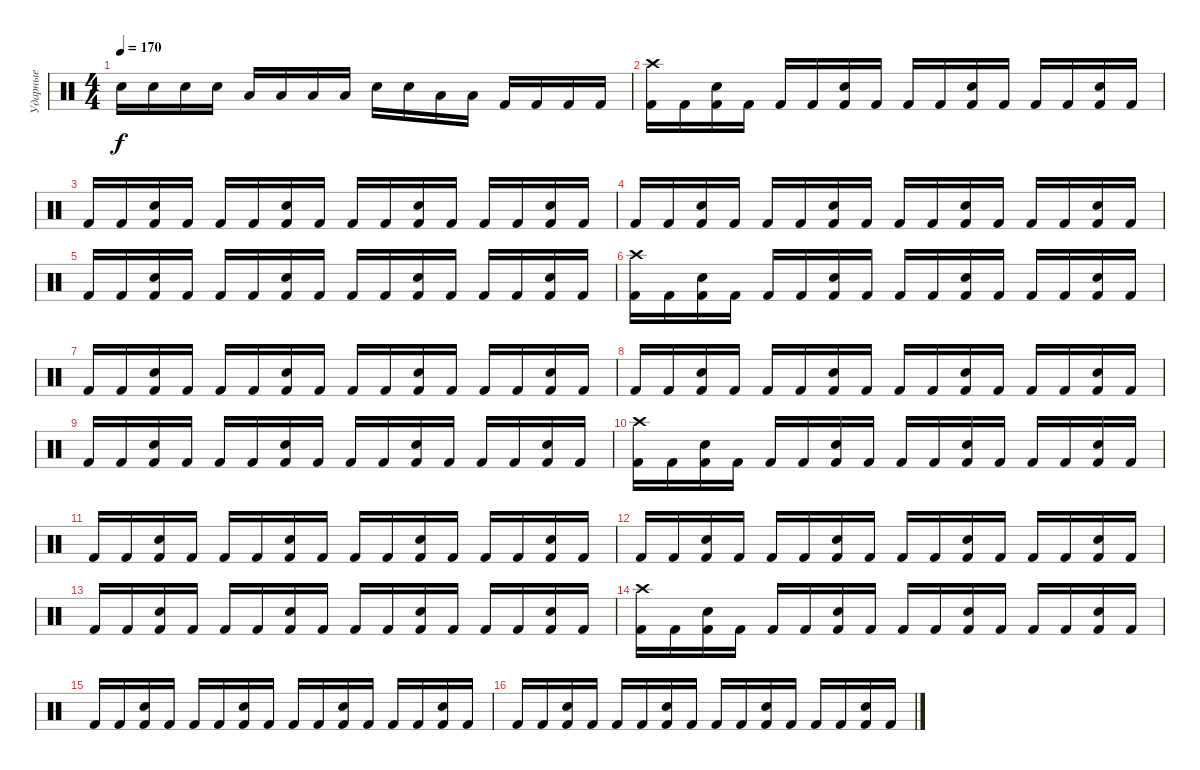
\track ("Ударные" "Ударные") {instrument percussion}
\staff {score}
\articulation defaults
\ts (4 4)
\tempo 170
\clef neutral
\ks c "Electric Snare (hit)".16{dy f} "Electric Snare (hit)".16 "Electric Snare (hit)".16 "Electric Snare (hit)".16 "Low Tom (hit)".16 "Low Tom (hit)".16 "Low Tom (hit)".16 "Low Tom (hit)".16 "Electric Snare (hit)".16 "Electric Snare (hit)".16 "Low Tom (hit)".16 "Low Tom (hit)".16 "Kick (hit) 2".16 "Kick (hit) 2".16 "Kick (hit) 2".16 "Kick (hit) 2".16
|
("Kick (hit) 2" "Crash high (hit)").16 "Kick (hit) 2".16 ("Kick (hit) 2" "Electric Snare (hit)").16 "Kick (hit) 2".16 "Kick (hit) 2".16 "Kick (hit) 2".16 ("Kick (hit) 2" "Electric Snare (hit)").16 "Kick (hit) 2".16 "Kick (hit) 2".16 "Kick (hit) 2".16 ("Kick (hit) 2" "Electric Snare (hit)").16 "Kick (hit) 2".16 "Kick (hit) 2".16 "Kick (hit) 2".16 ("Kick (hit) 2" "Electric Snare (hit)").16 "Kick (hit) 2".16 |
"Kick (hit) 2".16 "Kick (hit) 2".16 ("Kick (hit) 2" "Electric Snare (hit)").16 "Kick (hit) 2".16 "Kick (hit) 2".16 "Kick (hit) 2".16 ("Kick (hit) 2" "Electric Snare (hit)").16 "Kick (hit) 2".16 "Kick (hit) 2".16 "Kick (hit) 2".16 ("Kick (hit) 2" "Electric Snare (hit)").16 "Kick (hit) 2".16 "Kick (hit) 2".16 "Kick (hit) 2".16 ("Kick (hit) 2" "Electric Snare (hit)").16 "Kick (hit) 2".16 |
"Kick (hit) 2".16 "Kick (hit) 2".16 ("Kick (hit) 2" "Electric Snare (hit)").16 "Kick (hit) 2".16 "Kick (hit) 2".16 "Kick (hit) 2".16 ("Kick (hit) 2" "Electric Snare (hit)").16 "Kick (hit) 2".16 "Kick (hit) 2".16 "Kick (hit) 2".16 ("Kick (hit) 2" "Electric Snare (hit)").16 "Kick (hit) 2".16 "Kick (hit) 2".16 "Kick (hit) 2".16 ("Kick (hit) 2" "Electric Snare (hit)").16 "Kick (hit) 2".16 |
"Kick (hit) 2".16 "Kick (hit) 2".16 ("Kick (hit) 2" "Electric Snare (hit)").16 "Kick (hit) 2".16 "Kick (hit) 2".16 "Kick (hit) 2".16 ("Kick (hit) 2" "Electric Snare (hit)").16 "Kick (hit) 2".16 "Kick (hit) 2".16 "Kick (hit) 2".16 ("Kick (hit) 2" "Electric Snare (hit)").16 "Kick (hit) 2".16 "Kick (hit) 2".16 "Kick (hit) 2".16 ("Kick (hit) 2" "Electric Snare (hit)").16 "Kick (hit) 2".16 |
("Kick (hit) 2" "Crash high (hit)").16 "Kick (hit) 2".16 ("Kick (hit) 2" "Electric Snare (hit)").16 "Kick (hit) 2".16 "Kick (hit) 2".16 "Kick (hit) 2".16 ("Kick (hit) 2" "Electric Snare (hit)").16 "Kick (hit) 2".16 "Kick (hit) 2".16 "Kick (hit) 2".16 ("Kick (hit) 2" "Electric Snare (hit)").16 "Kick (hit) 2".16 "Kick (hit) 2".16 "Kick (hit) 2".16 ("Kick (hit) 2" "Electric Snare (hit)").16 "Kick (hit) 2".16 |
"Kick (hit) 2".16 "Kick (hit) 2".16 ("Kick (hit) 2" "Electric Snare (hit)").16 "Kick (hit) 2".16 "Kick (hit) 2".16 "Kick (hit) 2".16 ("Kick (hit) 2" "Electric Snare (hit)").16 "Kick (hit) 2".16 "Kick (hit) 2".16 "Kick (hit) 2".16 ("Kick (hit) 2" "Electric Snare (hit)").16 "Kick (hit) 2".16 "Kick (hit) 2".16 "Kick (hit) 2".16 ("Kick (hit) 2" "Electric Snare (hit)").16 "Kick (hit) 2".16 |
"Kick (hit) 2".16 "Kick (hit) 2".16 ("Kick (hit) 2" "Electric Snare (hit)").16 "Kick (hit) 2".16 "Kick (hit) 2".16 "Kick (hit) 2".16 ("Kick (hit) 2" "Electric Snare (hit)").16 "Kick (hit) 2".16 "Kick (hit) 2".16 "Kick (hit) 2".16 ("Kick (hit) 2" "Electric Snare (hit)").16 "Kick (hit) 2".16 "Kick (hit) 2".16 "Kick (hit) 2".16 ("Kick (hit) 2" "Electric Snare (hit)").16 "Kick (hit) 2".16 |
"Kick (hit) 2".16 "Kick (hit) 2".16 ("Kick (hit) 2" "Electric Snare (hit)").16 "Kick (hit) 2".16 "Kick (hit) 2".16 "Kick (hit) 2".16 ("Kick (hit) 2" "Electric Snare (hit)").16 "Kick (hit) 2".16 "Kick (hit) 2".16 "Kick (hit) 2".16 ("Kick (hit) 2" "Electric Snare (hit)").16 "Kick (hit) 2".16 "Kick (hit) 2".16 "Kick (hit) 2".16 ("Kick (hit) 2" "Electric Snare (hit)").16 "Kick (hit) 2".16 |
("Kick (hit) 2" "Crash high (hit)").16 "Kick (hit) 2".16 ("Kick (hit) 2" "Electric Snare (hit)").16 "Kick (hit) 2".16 "Kick (hit) 2".16 "Kick (hit) 2".16 ("Kick (hit) 2" "Electric Snare (hit)").16 "Kick (hit) 2".16 "Kick (hit) 2".16 "Kick (hit) 2".16 ("Kick (hit) 2" "Electric Snare (hit)").16 "Kick (hit) 2".16 "Kick (hit) 2".16 "Kick (hit) 2".16 ("Kick (hit) 2" "Electric Snare (hit)").16 "Kick (hit) 2".16 |
"Kick (hit) 2".16 "Kick (hit) 2".16 ("Kick (hit) 2" "Electric Snare (hit)").16 "Kick (hit) 2".16 "Kick (hit) 2".16 "Kick (hit) 2".16 ("Kick (hit) 2" "Electric Snare (hit)").16 "Kick (hit) 2".16 "Kick (hit) 2".16 "Kick (hit) 2".16 ("Kick (hit) 2" "Electric Snare (hit)").16 "Kick (hit) 2".16 "Kick (hit) 2".16 "Kick (hit) 2".16 ("Kick (hit) 2" "Electric Snare (hit)").16 "Kick (hit) 2".16 |
"Kick (hit) 2".16 "Kick (hit) 2".16 ("Kick (hit) 2" "Electric Snare (hit)").16 "Kick (hit) 2".16 "Kick (hit) 2".16 "Kick (hit) 2".16 ("Kick (hit) 2" "Electric Snare (hit)").16 "Kick (hit) 2".16 "Kick (hit) 2".16 "Kick (hit) 2".16 ("Kick (hit) 2" "Electric Snare (hit)").16 "Kick (hit) 2".16 "Kick (hit) 2".16 "Kick (hit) 2".16 ("Kick (hit) 2" "Electric Snare (hit)").16 "Kick (hit) 2".16 |
"Kick (hit) 2".16 "Kick (hit) 2".16 ("Kick (hit) 2" "Electric Snare (hit)").16 "Kick (hit) 2".16 "Kick (hit) 2".16 "Kick (hit) 2".16 ("Kick (hit) 2" "Electric Snare (hit)").16 "Kick (hit) 2".16 "Kick (hit) 2".16 "Kick (hit) 2".16 ("Kick (hit) 2" "Electric Snare (hit)").16 "Kick (hit) 2".16 "Kick (hit) 2".16 "Kick (hit) 2".16 ("Kick (hit) 2" "Electric Snare (hit)").16 "Kick (hit) 2".16 |
("Kick (hit) 2" "Crash high (hit)").16 "Kick (hit) 2".16 ("Kick (hit) 2" "Electric Snare (hit)").16 "Kick (hit) 2".16 "Kick (hit) 2".16 "Kick (hit) 2".16 ("Kick (hit) 2" "Electric Snare (hit)").16 "Kick (hit) 2".16 "Kick (hit) 2".16 "Kick (hit) 2".16 ("Kick (hit) 2" "Electric Snare (hit)").16 "Kick (hit) 2".16 "Kick (hit) 2".16 "Kick (hit) 2".16 ("Kick (hit) 2" "Electric Snare (hit)").16 "Kick (hit) 2".16 |
"Kick (hit) 2".16 "Kick (hit) 2".16 ("Kick (hit) 2" "Electric Snare (hit)").16 "Kick (hit) 2".16 "Kick (hit) 2".16 "Kick (hit) 2".16 ("Kick (hit) 2" "Electric Snare (hit)").16 "Kick (hit) 2".16 "Kick (hit) 2".16 "Kick (hit) 2".16 ("Kick (hit) 2" "Electric Snare (hit)").16 "Kick (hit) 2".16 "Kick (hit) 2".16 "Kick (hit) 2".16 ("Kick (hit) 2" "Electric Snare (hit)").16 "Kick (hit) 2".16 |
"Kick (hit) 2".16 "Kick (hit) 2".16 ("Kick (hit) 2" "Electric Snare (hit)").16 "Kick (hit) 2".16 "Kick (hit) 2".16 "Kick (hit) 2".16 ("Kick (hit) 2" "Electric Snare (hit)").16 "Kick (hit) 2".16 "Kick (hit) 2".16 "Kick (hit) 2".16 ("Kick (hit) 2" "Electric Snare (hit)").16 "Kick (hit) 2".16 "Kick (hit) 2".16 "Kick (hit) 2".16 ("Kick (hit) 2" "Electric Snare (hit)").16 "Kick (hit) 2".16
